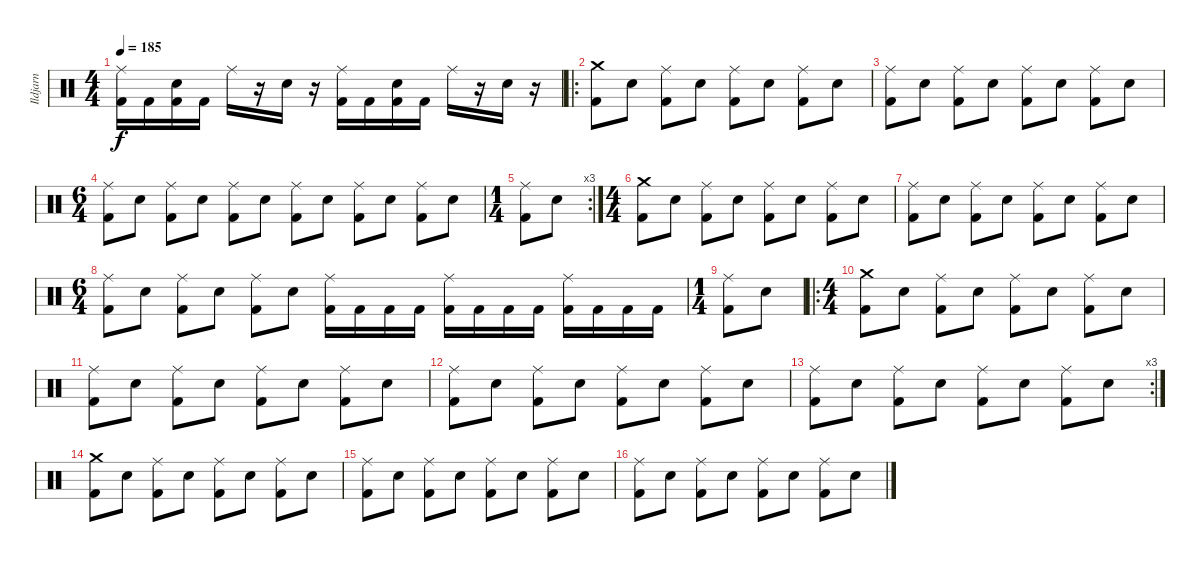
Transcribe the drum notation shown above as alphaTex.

\track ("Ildjarn" "Ildjarn") {instrument percussion}
\staff {score}
\articulation defaults
\ts (4 4)
\tempo 185
\clef neutral
\ks c
("Ride (middle)" "Kick (hit) 2").16{dy f} "Kick (hit) 2".16 ("Snare (hit) 2" "Kick (hit) 2").16 "Kick (hit) 2".16 "Ride (middle)".16 r.16 "Snare (hit) 2".16 r.16 ("Ride (middle)" "Kick (hit) 2").16 "Kick (hit) 2".16 ("Snare (hit) 2" "Kick (hit) 2").16 "Kick (hit) 2".16 "Ride (middle)".16 r.16 "Snare (hit) 2".16 r.16 |
\ro
("Crash medium (hit)" "Kick (hit) 2").8 "Snare (hit) 2".8 ("Ride (middle)" "Kick (hit) 2").8 "Snare (hit) 2".8 ("Ride (middle)" "Kick (hit) 2").8 "Snare (hit) 2".8 ("Ride (middle)" "Kick (hit) 2").8 "Snare (hit) 2".8 |
("Ride (middle)" "Kick (hit) 2").8 "Snare (hit) 2".8 ("Ride (middle)" "Kick (hit) 2").8 "Snare (hit) 2".8 ("Ride (middle)" "Kick (hit) 2").8 "Snare (hit) 2".8 ("Ride (middle)" "Kick (hit) 2").8 "Snare (hit) 2".8 |
\ts (6 4)
("Ride (middle)" "Kick (hit) 2").8 "Snare (hit) 2".8 ("Ride (middle)" "Kick (hit) 2").8 "Snare (hit) 2".8 ("Ride (middle)" "Kick (hit) 2").8 "Snare (hit) 2".8 ("Ride (middle)" "Kick (hit) 2").8 "Snare (hit) 2".8 ("Ride (middle)" "Kick (hit) 2").8 "Snare (hit) 2".8 ("Ride (middle)" "Kick (hit) 2").8 "Snare (hit) 2".8 |
\rc 3
\ts (1 4)
("Ride (middle)" "Kick (hit) 2").8 "Snare (hit) 2".8 |
\ts (4 4)
("Crash medium (hit)" "Kick (hit) 2").8 "Snare (hit) 2".8 ("Ride (middle)" "Kick (hit) 2").8 "Snare (hit) 2".8 ("Ride (middle)" "Kick (hit) 2").8 "Snare (hit) 2".8 ("Ride (middle)" "Kick (hit) 2").8 "Snare (hit) 2".8 |
("Ride (middle)" "Kick (hit) 2").8 "Snare (hit) 2".8 ("Ride (middle)" "Kick (hit) 2").8 "Snare (hit) 2".8 ("Ride (middle)" "Kick (hit) 2").8 "Snare (hit) 2".8 ("Ride (middle)" "Kick (hit) 2").8 "Snare (hit) 2".8 |
\ts (6 4)
("Ride (middle)" "Kick (hit) 2").8 "Snare (hit) 2".8 ("Ride (middle)" "Kick (hit) 2").8 "Snare (hit) 2".8 ("Ride (middle)" "Kick (hit) 2").8 "Snare (hit) 2".8 ("Ride (middle)" "Kick (hit) 2").16 "Kick (hit) 2".16 "Kick (hit) 2".16 "Kick (hit) 2".16 ("Ride (middle)" "Kick (hit) 2").16 "Kick (hit) 2".16 "Kick (hit) 2".16 "Kick (hit) 2".16 ("Ride (middle)" "Kick (hit) 2").16 "Kick (hit) 2".16 "Kick (hit) 2".16 "Kick (hit) 2".16 |
\ts (1 4)
("Ride (middle)" "Kick (hit) 2").8 "Snare (hit) 2".8 |
\ro
\ts (4 4)
("Crash medium (hit)" "Kick (hit) 2").8 "Snare (hit) 2".8 ("Ride (middle)" "Kick (hit) 2").8 "Snare (hit) 2".8 ("Ride (middle)" "Kick (hit) 2").8 "Snare (hit) 2".8 ("Ride (middle)" "Kick (hit) 2").8 "Snare (hit) 2".8 |
("Ride (middle)" "Kick (hit) 2").8 "Snare (hit) 2".8 ("Ride (middle)" "Kick (hit) 2").8 "Snare (hit) 2".8 ("Ride (middle)" "Kick (hit) 2").8 "Snare (hit) 2".8 ("Ride (middle)" "Kick (hit) 2").8 "Snare (hit) 2".8 |
("Ride (middle)" "Kick (hit) 2").8 "Snare (hit) 2".8 ("Ride (middle)" "Kick (hit) 2").8 "Snare (hit) 2".8 ("Ride (middle)" "Kick (hit) 2").8 "Snare (hit) 2".8 ("Ride (middle)" "Kick (hit) 2").8 "Snare (hit) 2".8 |
\rc 3
("Ride (middle)" "Kick (hit) 2").8 "Snare (hit) 2".8 ("Ride (middle)" "Kick (hit) 2").8 "Snare (hit) 2".8 ("Ride (middle)" "Kick (hit) 2").8 "Snare (hit) 2".8 ("Ride (middle)" "Kick (hit) 2").8 "Snare (hit) 2".8 |
("Crash medium (hit)" "Kick (hit) 2").8 "Snare (hit) 2".8 ("Ride (middle)" "Kick (hit) 2").8 "Snare (hit) 2".8 ("Ride (middle)" "Kick (hit) 2").8 "Snare (hit) 2".8 ("Ride (middle)" "Kick (hit) 2").8 "Snare (hit) 2".8 |
("Ride (middle)" "Kick (hit) 2").8 "Snare (hit) 2".8 ("Ride (middle)" "Kick (hit) 2").8 "Snare (hit) 2".8 ("Ride (middle)" "Kick (hit) 2").8 "Snare (hit) 2".8 ("Ride (middle)" "Kick (hit) 2").8 "Snare (hit) 2".8 |
("Ride (middle)" "Kick (hit) 2").8 "Snare (hit) 2".8 ("Ride (middle)" "Kick (hit) 2").8 "Snare (hit) 2".8 ("Ride (middle)" "Kick (hit) 2").8 "Snare (hit) 2".8 ("Ride (middle)" "Kick (hit) 2").8 "Snare (hit) 2".8
